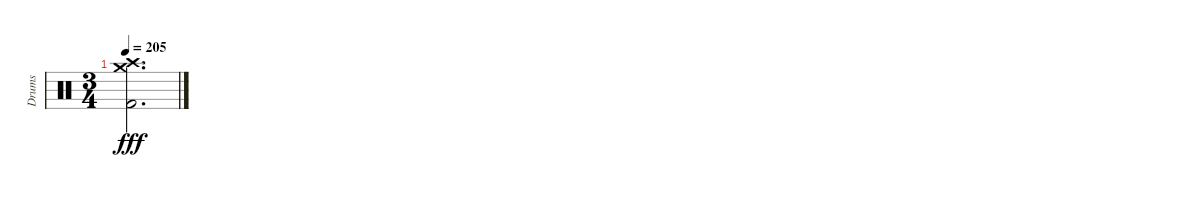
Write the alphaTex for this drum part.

\track ("Drums" "Drums") {instrument percussion}
\staff {score}
\articulation defaults
\ts (3 4)
\tempo 205
\clef neutral
\ks c
("Crash medium (hit)" "Crash high (hit)" "Kick (hit) 2").2{d dy fff}
